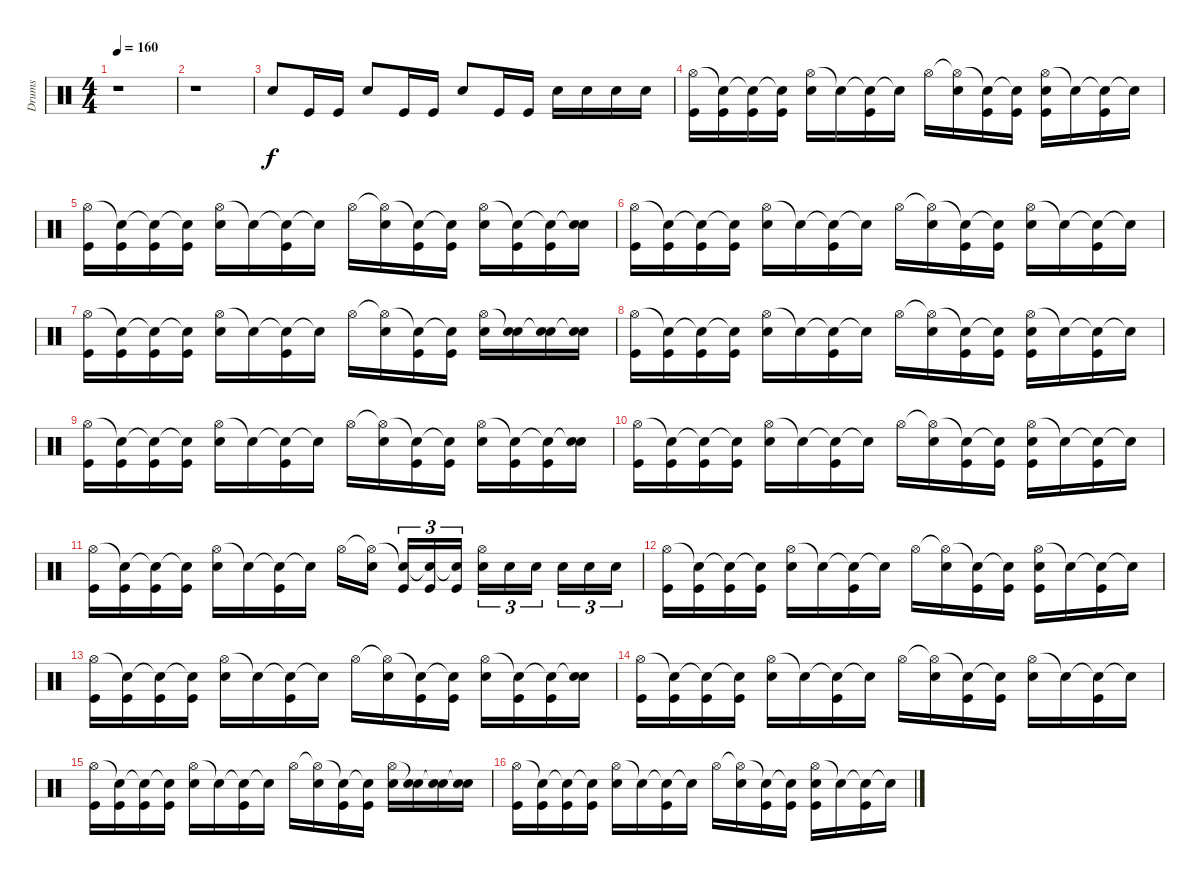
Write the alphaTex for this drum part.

\track ("Drums" "Drums") {instrument percussion}
\staff {score}
\articulation defaults
\ts (4 4)
\tempo 160
\clef neutral
\ks c
r.1{dy f} |
r.1 |
"Electric Snare (hit)".8 "Kick (hit)".16 "Kick (hit)".16 "Electric Snare (hit)".8 "Kick (hit)".16 "Kick (hit)".16 "Electric Snare (hit)".8 "Kick (hit)".16 "Kick (hit)".16 "Electric Snare (hit)".16 "Electric Snare (hit)".16 "Electric Snare (hit)".16 "Electric Snare (hit)".16 |
("Hi-Hat (open)" "Kick (hit)").16 ("Snare (hit)"{t} "Kick (hit)").16 ("Snare (hit)"{t} "Kick (hit)").16 ("Snare (hit)"{t} "Kick (hit)").16 ("Hi-Hat (open)" "Electric Snare (hit)").16 "Snare (hit)"{t}.16 ("Snare (hit)"{t} "Kick (hit)").16 "Snare (hit)"{t}.16 "Hi-Hat (open)".16 ("Hi-Hat (open)"{t} "Electric Snare (hit)").16 ("Snare (hit)"{t} "Kick (hit)").16 ("Snare (hit)"{t} "Kick (hit)").16 ("Hi-Hat (open)" "Electric Snare (hit)" "Kick (hit)").16 "Snare (hit)"{t}.16 ("Snare (hit)"{t} "Kick (hit)").16 "Snare (hit)"{t}.16 |
("Hi-Hat (open)" "Kick (hit)").16 ("Snare (hit)"{t} "Kick (hit)").16 ("Snare (hit)"{t} "Kick (hit)").16 ("Snare (hit)"{t} "Kick (hit)").16 ("Hi-Hat (open)" "Electric Snare (hit)").16 "Snare (hit)"{t}.16 ("Snare (hit)"{t} "Kick (hit)").16 "Snare (hit)"{t}.16 "Hi-Hat (open)".16 ("Hi-Hat (open)"{t} "Electric Snare (hit)").16 ("Snare (hit)"{t} "Kick (hit)").16 ("Snare (hit)"{t} "Kick (hit)").16 ("Hi-Hat (open)" "Electric Snare (hit)").16 ("Snare (hit)"{t} "Kick (hit)").16 ("Snare (hit)"{t} "Kick (hit)").16 ("Snare (hit)"{t} "Electric Snare (hit)").16 |
("Hi-Hat (open)" "Kick (hit)").16 ("Snare (hit)"{t} "Kick (hit)").16 ("Snare (hit)"{t} "Kick (hit)").16 ("Snare (hit)"{t} "Kick (hit)").16 ("Hi-Hat (open)" "Electric Snare (hit)").16 "Snare (hit)"{t}.16 ("Snare (hit)"{t} "Kick (hit)").16 "Snare (hit)"{t}.16 "Hi-Hat (open)".16 ("Hi-Hat (open)"{t} "Electric Snare (hit)").16 ("Snare (hit)"{t} "Kick (hit)").16 ("Snare (hit)"{t} "Kick (hit)").16 ("Hi-Hat (open)" "Electric Snare (hit)").16 "Snare (hit)"{t}.16 ("Snare (hit)"{t} "Kick (hit)").16 "Snare (hit)"{t}.16 |
("Hi-Hat (open)" "Kick (hit)").16 ("Snare (hit)"{t} "Kick (hit)").16 ("Snare (hit)"{t} "Kick (hit)").16 ("Snare (hit)"{t} "Kick (hit)").16 ("Hi-Hat (open)" "Electric Snare (hit)").16 "Snare (hit)"{t}.16 ("Snare (hit)"{t} "Kick (hit)").16 "Snare (hit)"{t}.16 "Hi-Hat (open)".16 ("Hi-Hat (open)"{t} "Electric Snare (hit)").16 ("Snare (hit)"{t} "Kick (hit)").16 ("Snare (hit)"{t} "Kick (hit)").16 ("Hi-Hat (open)" "Electric Snare (hit)").16 ("Snare (hit)"{t} "Electric Snare (hit)").16 ("Snare (hit)"{t} "Electric Snare (hit)").16 ("Snare (hit)"{t} "Electric Snare (hit)").16 |
("Hi-Hat (open)" "Kick (hit)").16 ("Snare (hit)"{t} "Kick (hit)").16 ("Snare (hit)"{t} "Kick (hit)").16 ("Snare (hit)"{t} "Kick (hit)").16 ("Hi-Hat (open)" "Electric Snare (hit)").16 "Snare (hit)"{t}.16 ("Snare (hit)"{t} "Kick (hit)").16 "Snare (hit)"{t}.16 "Hi-Hat (open)".16 ("Hi-Hat (open)"{t} "Electric Snare (hit)").16 ("Snare (hit)"{t} "Kick (hit)").16 ("Snare (hit)"{t} "Kick (hit)").16 ("Hi-Hat (open)" "Electric Snare (hit)" "Kick (hit)").16 "Snare (hit)"{t}.16 ("Snare (hit)"{t} "Kick (hit)").16 "Snare (hit)"{t}.16 |
("Hi-Hat (open)" "Kick (hit)").16 ("Snare (hit)"{t} "Kick (hit)").16 ("Snare (hit)"{t} "Kick (hit)").16 ("Snare (hit)"{t} "Kick (hit)").16 ("Hi-Hat (open)" "Electric Snare (hit)").16 "Snare (hit)"{t}.16 ("Snare (hit)"{t} "Kick (hit)").16 "Snare (hit)"{t}.16 "Hi-Hat (open)".16 ("Hi-Hat (open)"{t} "Electric Snare (hit)").16 ("Snare (hit)"{t} "Kick (hit)").16 ("Snare (hit)"{t} "Kick (hit)").16 ("Hi-Hat (open)" "Electric Snare (hit)").16 ("Snare (hit)"{t} "Kick (hit)").16 ("Snare (hit)"{t} "Kick (hit)").16 ("Snare (hit)"{t} "Electric Snare (hit)").16 |
("Hi-Hat (open)" "Kick (hit)").16 ("Snare (hit)"{t} "Kick (hit)").16 ("Snare (hit)"{t} "Kick (hit)").16 ("Snare (hit)"{t} "Kick (hit)").16 ("Hi-Hat (open)" "Electric Snare (hit)").16 "Snare (hit)"{t}.16 ("Snare (hit)"{t} "Kick (hit)").16 "Snare (hit)"{t}.16 "Hi-Hat (open)".16 ("Hi-Hat (open)"{t} "Electric Snare (hit)").16 ("Snare (hit)"{t} "Kick (hit)").16 ("Snare (hit)"{t} "Kick (hit)").16 ("Hi-Hat (open)" "Electric Snare (hit)" "Kick (hit)").16 "Snare (hit)"{t}.16 ("Snare (hit)"{t} "Kick (hit)").16 "Snare (hit)"{t}.16 |
("Hi-Hat (open)" "Kick (hit)").16 ("Snare (hit)"{t} "Kick (hit)").16 ("Snare (hit)"{t} "Kick (hit)").16 ("Snare (hit)"{t} "Kick (hit)").16 ("Hi-Hat (open)" "Electric Snare (hit)").16 "Snare (hit)"{t}.16 ("Snare (hit)"{t} "Kick (hit)").16 "Snare (hit)"{t}.16 "Hi-Hat (open)".16 ("Hi-Hat (open)"{t} "Electric Snare (hit)").16 ("Snare (hit)"{t} "Kick (hit)").16{tu (3 2)} ("Snare (hit)"{t} "Kick (hit)").16{tu (3 2)} ("Snare (hit)"{t} "Kick (hit)").16{tu (3 2)} ("Hi-Hat (open)" "Electric Snare (hit)").16{tu (3 2)} "Electric Snare (hit)".16{tu (3 2)} "Electric Snare (hit)".16{tu (3 2)} "Electric Snare (hit)".16{tu (3 2)} "Electric Snare (hit)".16{tu (3 2)} "Electric Snare (hit)".16{tu (3 2)} |
("Hi-Hat (open)" "Kick (hit)").16 ("Snare (hit)"{t} "Kick (hit)").16 ("Snare (hit)"{t} "Kick (hit)").16 ("Snare (hit)"{t} "Kick (hit)").16 ("Hi-Hat (open)" "Electric Snare (hit)").16 "Snare (hit)"{t}.16 ("Snare (hit)"{t} "Kick (hit)").16 "Snare (hit)"{t}.16 "Hi-Hat (open)".16 ("Hi-Hat (open)"{t} "Electric Snare (hit)").16 ("Snare (hit)"{t} "Kick (hit)").16 ("Snare (hit)"{t} "Kick (hit)").16 ("Hi-Hat (open)" "Electric Snare (hit)" "Kick (hit)").16 "Snare (hit)"{t}.16 ("Snare (hit)"{t} "Kick (hit)").16 "Snare (hit)"{t}.16 |
("Hi-Hat (open)" "Kick (hit)").16 ("Snare (hit)"{t} "Kick (hit)").16 ("Snare (hit)"{t} "Kick (hit)").16 ("Snare (hit)"{t} "Kick (hit)").16 ("Hi-Hat (open)" "Electric Snare (hit)").16 "Snare (hit)"{t}.16 ("Snare (hit)"{t} "Kick (hit)").16 "Snare (hit)"{t}.16 "Hi-Hat (open)".16 ("Hi-Hat (open)"{t} "Electric Snare (hit)").16 ("Snare (hit)"{t} "Kick (hit)").16 ("Snare (hit)"{t} "Kick (hit)").16 ("Hi-Hat (open)" "Electric Snare (hit)").16 ("Snare (hit)"{t} "Kick (hit)").16 ("Snare (hit)"{t} "Kick (hit)").16 ("Snare (hit)"{t} "Electric Snare (hit)").16 |
("Hi-Hat (open)" "Kick (hit)").16 ("Snare (hit)"{t} "Kick (hit)").16 ("Snare (hit)"{t} "Kick (hit)").16 ("Snare (hit)"{t} "Kick (hit)").16 ("Hi-Hat (open)" "Electric Snare (hit)").16 "Snare (hit)"{t}.16 ("Snare (hit)"{t} "Kick (hit)").16 "Snare (hit)"{t}.16 "Hi-Hat (open)".16 ("Hi-Hat (open)"{t} "Electric Snare (hit)").16 ("Snare (hit)"{t} "Kick (hit)").16 ("Snare (hit)"{t} "Kick (hit)").16 ("Hi-Hat (open)" "Electric Snare (hit)").16 "Snare (hit)"{t}.16 ("Snare (hit)"{t} "Kick (hit)").16 "Snare (hit)"{t}.16 |
("Hi-Hat (open)" "Kick (hit)").16 ("Snare (hit)"{t} "Kick (hit)").16 ("Snare (hit)"{t} "Kick (hit)").16 ("Snare (hit)"{t} "Kick (hit)").16 ("Hi-Hat (open)" "Electric Snare (hit)").16 "Snare (hit)"{t}.16 ("Snare (hit)"{t} "Kick (hit)").16 "Snare (hit)"{t}.16 "Hi-Hat (open)".16 ("Hi-Hat (open)"{t} "Electric Snare (hit)").16 ("Snare (hit)"{t} "Kick (hit)").16 ("Snare (hit)"{t} "Kick (hit)").16 ("Hi-Hat (open)" "Electric Snare (hit)").16 ("Snare (hit)"{t} "Electric Snare (hit)").16 ("Snare (hit)"{t} "Electric Snare (hit)").16 ("Snare (hit)"{t} "Electric Snare (hit)").16 |
("Hi-Hat (open)" "Kick (hit)").16 ("Snare (hit)"{t} "Kick (hit)").16 ("Snare (hit)"{t} "Kick (hit)").16 ("Snare (hit)"{t} "Kick (hit)").16 ("Hi-Hat (open)" "Electric Snare (hit)").16 "Snare (hit)"{t}.16 ("Snare (hit)"{t} "Kick (hit)").16 "Snare (hit)"{t}.16 "Hi-Hat (open)".16 ("Hi-Hat (open)"{t} "Electric Snare (hit)").16 ("Snare (hit)"{t} "Kick (hit)").16 ("Snare (hit)"{t} "Kick (hit)").16 ("Hi-Hat (open)" "Electric Snare (hit)" "Kick (hit)").16 "Snare (hit)"{t}.16 ("Snare (hit)"{t} "Kick (hit)").16 "Snare (hit)"{t}.16
